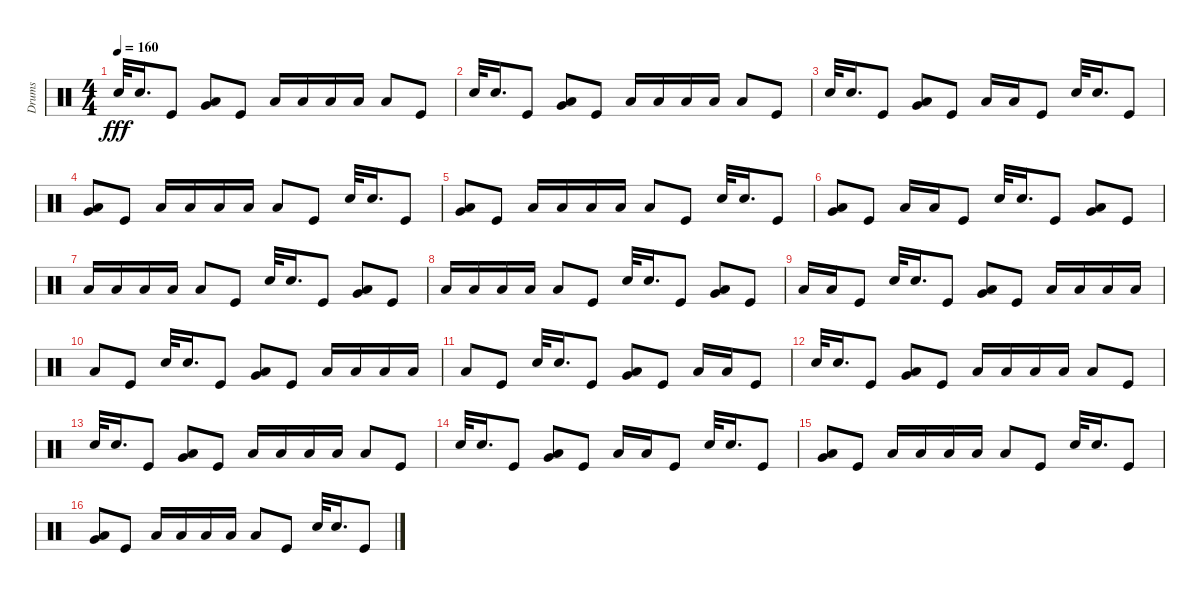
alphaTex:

\track ("Drums" "Drums") {instrument percussion}
\staff {score}
\articulation defaults
\ts (4 4)
\tempo 160
\clef neutral
\ks c "Electric Snare (hit)".32{dy fff} "Electric Snare (hit)".16{d} "Kick (hit)".8
("Low Floor Tom (hit)" "Very Low Tom (hit)").8 "Kick (hit)".8 "Low Floor Tom (hit)".16 "Low Floor Tom (hit)".16 "Low Floor Tom (hit)".16 "Low Floor Tom (hit)".16 "Low Floor Tom (hit)".8 "Kick (hit)".8 |
"Electric Snare (hit)".32 "Electric Snare (hit)".16{d} "Kick (hit)".8 ("Low Floor Tom (hit)" "Very Low Tom (hit)").8 "Kick (hit)".8 "Low Floor Tom (hit)".16 "Low Floor Tom (hit)".16 "Low Floor Tom (hit)".16 "Low Floor Tom (hit)".16 "Low Floor Tom (hit)".8 "Kick (hit)".8 |
"Electric Snare (hit)".32 "Electric Snare (hit)".16{d} "Kick (hit)".8 ("Low Floor Tom (hit)" "Very Low Tom (hit)").8 "Kick (hit)".8 "Low Floor Tom (hit)".16 "Low Floor Tom (hit)".16 "Kick (hit)".8 "Electric Snare (hit)".32 "Electric Snare (hit)".16{d} "Kick (hit)".8 |
("Low Floor Tom (hit)" "Very Low Tom (hit)").8 "Kick (hit)".8 "Low Floor Tom (hit)".16 "Low Floor Tom (hit)".16 "Low Floor Tom (hit)".16 "Low Floor Tom (hit)".16 "Low Floor Tom (hit)".8 "Kick (hit)".8 "Electric Snare (hit)".32 "Electric Snare (hit)".16{d} "Kick (hit)".8 |
("Low Floor Tom (hit)" "Very Low Tom (hit)").8 "Kick (hit)".8 "Low Floor Tom (hit)".16 "Low Floor Tom (hit)".16 "Low Floor Tom (hit)".16 "Low Floor Tom (hit)".16 "Low Floor Tom (hit)".8 "Kick (hit)".8 "Electric Snare (hit)".32 "Electric Snare (hit)".16{d} "Kick (hit)".8 |
("Low Floor Tom (hit)" "Very Low Tom (hit)").8 "Kick (hit)".8 "Low Floor Tom (hit)".16 "Low Floor Tom (hit)".16 "Kick (hit)".8 "Electric Snare (hit)".32 "Electric Snare (hit)".16{d} "Kick (hit)".8 ("Low Floor Tom (hit)" "Very Low Tom (hit)").8 "Kick (hit)".8 |
"Low Floor Tom (hit)".16 "Low Floor Tom (hit)".16 "Low Floor Tom (hit)".16 "Low Floor Tom (hit)".16 "Low Floor Tom (hit)".8 "Kick (hit)".8 "Electric Snare (hit)".32 "Electric Snare (hit)".16{d} "Kick (hit)".8 ("Low Floor Tom (hit)" "Very Low Tom (hit)").8 "Kick (hit)".8 |
"Low Floor Tom (hit)".16 "Low Floor Tom (hit)".16 "Low Floor Tom (hit)".16 "Low Floor Tom (hit)".16 "Low Floor Tom (hit)".8 "Kick (hit)".8 "Electric Snare (hit)".32 "Electric Snare (hit)".16{d} "Kick (hit)".8 ("Low Floor Tom (hit)" "Very Low Tom (hit)").8 "Kick (hit)".8 |
"Low Floor Tom (hit)".16 "Low Floor Tom (hit)".16 "Kick (hit)".8 "Electric Snare (hit)".32 "Electric Snare (hit)".16{d} "Kick (hit)".8 ("Low Floor Tom (hit)" "Very Low Tom (hit)").8 "Kick (hit)".8 "Low Floor Tom (hit)".16 "Low Floor Tom (hit)".16 "Low Floor Tom (hit)".16 "Low Floor Tom (hit)".16 |
"Low Floor Tom (hit)".8 "Kick (hit)".8 "Electric Snare (hit)".32 "Electric Snare (hit)".16{d} "Kick (hit)".8 ("Low Floor Tom (hit)" "Very Low Tom (hit)").8 "Kick (hit)".8 "Low Floor Tom (hit)".16 "Low Floor Tom (hit)".16 "Low Floor Tom (hit)".16 "Low Floor Tom (hit)".16 |
"Low Floor Tom (hit)".8 "Kick (hit)".8 "Electric Snare (hit)".32 "Electric Snare (hit)".16{d} "Kick (hit)".8 ("Low Floor Tom (hit)" "Very Low Tom (hit)").8 "Kick (hit)".8 "Low Floor Tom (hit)".16 "Low Floor Tom (hit)".16 "Kick (hit)".8 |
"Electric Snare (hit)".32 "Electric Snare (hit)".16{d} "Kick (hit)".8 ("Low Floor Tom (hit)" "Very Low Tom (hit)").8 "Kick (hit)".8 "Low Floor Tom (hit)".16 "Low Floor Tom (hit)".16 "Low Floor Tom (hit)".16 "Low Floor Tom (hit)".16 "Low Floor Tom (hit)".8 "Kick (hit)".8 |
"Electric Snare (hit)".32 "Electric Snare (hit)".16{d} "Kick (hit)".8 ("Low Floor Tom (hit)" "Very Low Tom (hit)").8 "Kick (hit)".8 "Low Floor Tom (hit)".16 "Low Floor Tom (hit)".16 "Low Floor Tom (hit)".16 "Low Floor Tom (hit)".16 "Low Floor Tom (hit)".8 "Kick (hit)".8 |
"Electric Snare (hit)".32 "Electric Snare (hit)".16{d} "Kick (hit)".8 ("Low Floor Tom (hit)" "Very Low Tom (hit)").8 "Kick (hit)".8 "Low Floor Tom (hit)".16 "Low Floor Tom (hit)".16 "Kick (hit)".8 "Electric Snare (hit)".32 "Electric Snare (hit)".16{d} "Kick (hit)".8 |
("Low Floor Tom (hit)" "Very Low Tom (hit)").8 "Kick (hit)".8 "Low Floor Tom (hit)".16 "Low Floor Tom (hit)".16 "Low Floor Tom (hit)".16 "Low Floor Tom (hit)".16 "Low Floor Tom (hit)".8 "Kick (hit)".8 "Electric Snare (hit)".32 "Electric Snare (hit)".16{d} "Kick (hit)".8 |
("Low Floor Tom (hit)" "Very Low Tom (hit)").8 "Kick (hit)".8 "Low Floor Tom (hit)".16 "Low Floor Tom (hit)".16 "Low Floor Tom (hit)".16 "Low Floor Tom (hit)".16 "Low Floor Tom (hit)".8 "Kick (hit)".8 "Electric Snare (hit)".32 "Electric Snare (hit)".16{d} "Kick (hit)".8
